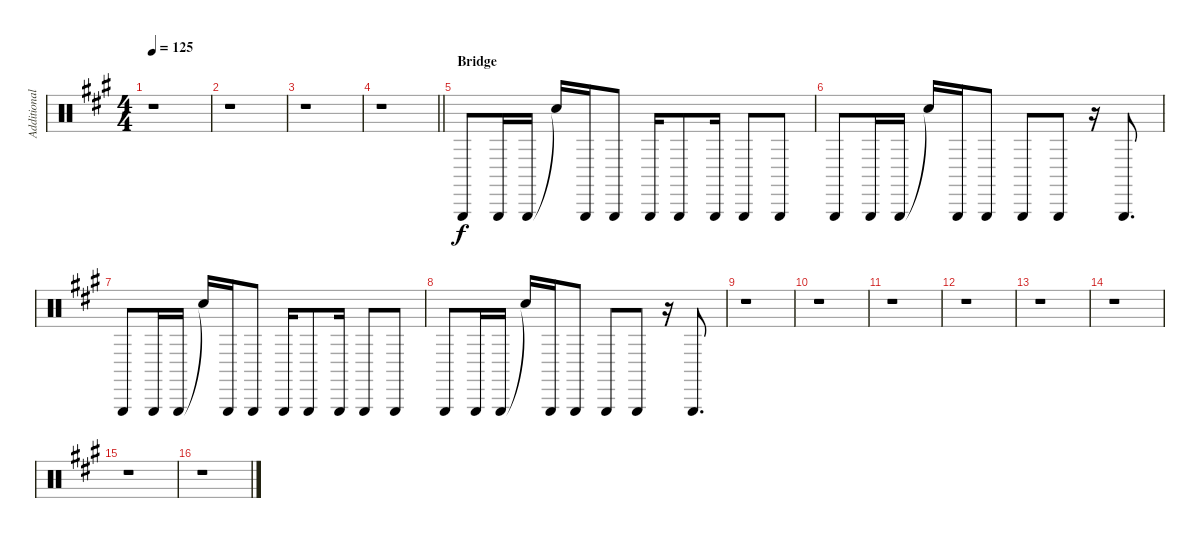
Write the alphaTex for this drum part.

\track ("Additional Percussion II" "Additional") {instrument percussion}
\staff {score}
\articulation defaults
\ts (4 4)
\tempo 125
\clef neutral
\ks a
r.1{dy f} |
r.1 |
r.1 |
\barLineRight lightlight
r.1 |
\section ("" "Bridge")
"Triangle (hit)".8 "Triangle (hit)".16 "Triangle (hit)".16 "Snare (hit)"{t}.16 "Triangle (hit)".16 "Triangle (hit)".8 "Triangle (hit)".16 "Triangle (hit)".8 "Triangle (hit)".16 "Triangle (hit)".8 "Triangle (hit)".8 |
"Triangle (hit)".8 "Triangle (hit)".16 "Triangle (hit)".16 "Snare (hit)"{t}.16 "Triangle (hit)".16 "Triangle (hit)".8 "Triangle (hit)".8 "Triangle (hit)".8 r.16 "Triangle (hit)".8{d} |
"Triangle (hit)".8 "Triangle (hit)".16 "Triangle (hit)".16 "Snare (hit)"{t}.16 "Triangle (hit)".16 "Triangle (hit)".8 "Triangle (hit)".16 "Triangle (hit)".8 "Triangle (hit)".16 "Triangle (hit)".8 "Triangle (hit)".8 |
"Triangle (hit)".8 "Triangle (hit)".16 "Triangle (hit)".16 "Snare (hit)"{t}.16 "Triangle (hit)".16 "Triangle (hit)".8 "Triangle (hit)".8 "Triangle (hit)".8 r.16 "Triangle (hit)".8{d} |
r.1 |
r.1 |
r.1 |
r.1 |
r.1 |
r.1 |
r.1 |
r.1
